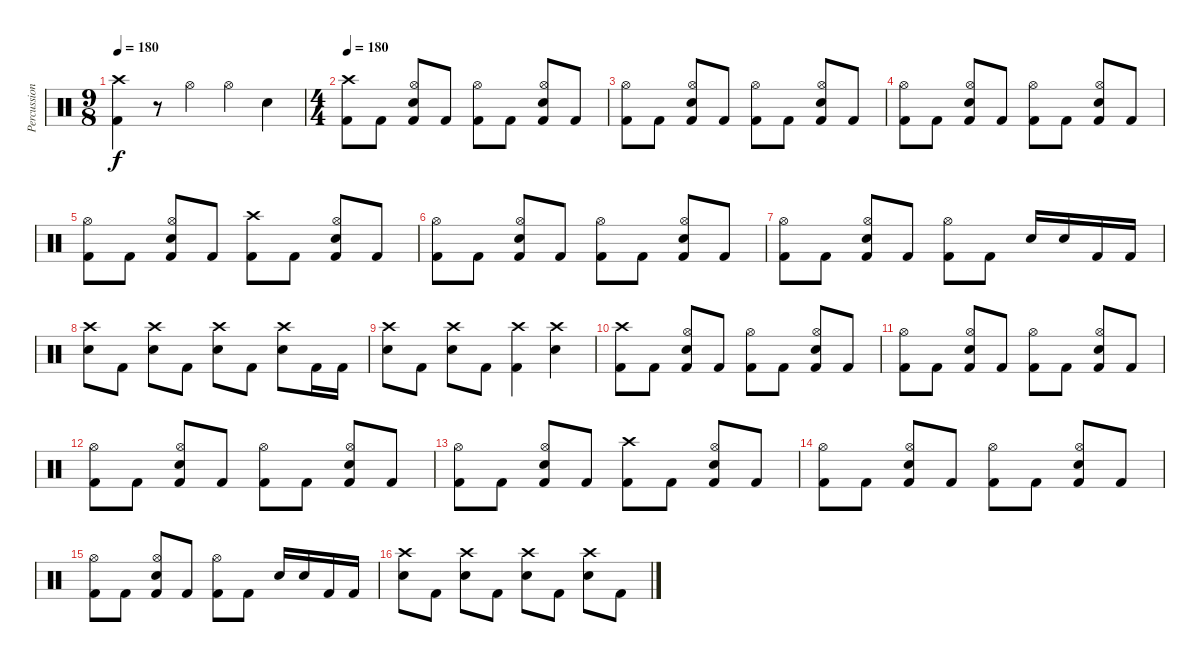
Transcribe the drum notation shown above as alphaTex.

\track ("Percussion" "Percussion") {instrument percussion}
\staff {score}
\articulation defaults
\ts (9 8)
\tempo 180
\clef neutral
\ks c
("Crash high (hit)" "Kick (hit) 2").4{dy f} r.8 "Hi-Hat (open)".4 "Hi-Hat (open)".4 "Snare (hit) 2".4 |
\ts (4 4)
\tempo 180
("Crash high (hit)" "Kick (hit) 2").8 "Kick (hit) 2".8 ("Hi-Hat (open)" "Snare (hit) 2" "Kick (hit) 2").8 "Kick (hit) 2".8 ("Hi-Hat (open)" "Kick (hit) 2").8 "Kick (hit) 2".8 ("Hi-Hat (open)" "Snare (hit) 2" "Kick (hit) 2").8 "Kick (hit) 2".8 |
("Hi-Hat (open)" "Kick (hit) 2").8 "Kick (hit) 2".8 ("Hi-Hat (open)" "Snare (hit) 2" "Kick (hit) 2").8 "Kick (hit) 2".8 ("Hi-Hat (open)" "Kick (hit) 2").8 "Kick (hit) 2".8 ("Hi-Hat (open)" "Snare (hit) 2" "Kick (hit) 2").8 "Kick (hit) 2".8 |
("Hi-Hat (open)" "Kick (hit) 2").8 "Kick (hit) 2".8 ("Hi-Hat (open)" "Snare (hit) 2" "Kick (hit) 2").8 "Kick (hit) 2".8 ("Hi-Hat (open)" "Kick (hit) 2").8 "Kick (hit) 2".8 ("Hi-Hat (open)" "Snare (hit) 2" "Kick (hit) 2").8 "Kick (hit) 2".8 |
("Hi-Hat (open)" "Kick (hit) 2").8 "Kick (hit) 2".8 ("Hi-Hat (open)" "Snare (hit) 2" "Kick (hit) 2").8 "Kick (hit) 2".8 ("Crash high (hit)" "Kick (hit) 2").8 "Kick (hit) 2".8 ("Hi-Hat (open)" "Snare (hit) 2" "Kick (hit) 2").8 "Kick (hit) 2".8 |
("Hi-Hat (open)" "Kick (hit) 2").8 "Kick (hit) 2".8 ("Hi-Hat (open)" "Snare (hit) 2" "Kick (hit) 2").8 "Kick (hit) 2".8 ("Hi-Hat (open)" "Kick (hit) 2").8 "Kick (hit) 2".8 ("Hi-Hat (open)" "Snare (hit) 2" "Kick (hit) 2").8 "Kick (hit) 2".8 |
("Hi-Hat (open)" "Kick (hit) 2").8 "Kick (hit) 2".8 ("Hi-Hat (open)" "Snare (hit) 2" "Kick (hit) 2").8 "Kick (hit) 2".8 ("Hi-Hat (open)" "Kick (hit) 2").8 "Kick (hit) 2".8 "Snare (hit) 2".16 "Snare (hit) 2".16 "Kick (hit) 2".16 "Kick (hit) 2".16 |
("Crash high (hit)" "Snare (hit) 2").8 "Kick (hit) 2".8 ("Crash high (hit)" "Snare (hit) 2").8 "Kick (hit) 2".8 ("Crash high (hit)" "Snare (hit) 2").8 "Kick (hit) 2".8 ("Crash high (hit)" "Snare (hit) 2").8 "Kick (hit) 2".16 "Kick (hit) 2".16 |
("Crash high (hit)" "Snare (hit) 2").8 "Kick (hit) 2".8 ("Crash high (hit)" "Snare (hit) 2").8 "Kick (hit) 2".8 ("Crash high (hit)" "Kick (hit) 2").4 ("Crash high (hit)" "Snare (hit) 2").4 |
("Crash high (hit)" "Kick (hit) 2").8 "Kick (hit) 2".8 ("Hi-Hat (open)" "Snare (hit) 2" "Kick (hit) 2").8 "Kick (hit) 2".8 ("Hi-Hat (open)" "Kick (hit) 2").8 "Kick (hit) 2".8 ("Hi-Hat (open)" "Snare (hit) 2" "Kick (hit) 2").8 "Kick (hit) 2".8 |
("Hi-Hat (open)" "Kick (hit) 2").8 "Kick (hit) 2".8 ("Hi-Hat (open)" "Snare (hit) 2" "Kick (hit) 2").8 "Kick (hit) 2".8 ("Hi-Hat (open)" "Kick (hit) 2").8 "Kick (hit) 2".8 ("Hi-Hat (open)" "Snare (hit) 2" "Kick (hit) 2").8 "Kick (hit) 2".8 |
("Hi-Hat (open)" "Kick (hit) 2").8 "Kick (hit) 2".8 ("Hi-Hat (open)" "Snare (hit) 2" "Kick (hit) 2").8 "Kick (hit) 2".8 ("Hi-Hat (open)" "Kick (hit) 2").8 "Kick (hit) 2".8 ("Hi-Hat (open)" "Snare (hit) 2" "Kick (hit) 2").8 "Kick (hit) 2".8 |
("Hi-Hat (open)" "Kick (hit) 2").8 "Kick (hit) 2".8 ("Hi-Hat (open)" "Snare (hit) 2" "Kick (hit) 2").8 "Kick (hit) 2".8 ("Crash high (hit)" "Kick (hit) 2").8 "Kick (hit) 2".8 ("Hi-Hat (open)" "Snare (hit) 2" "Kick (hit) 2").8 "Kick (hit) 2".8 |
("Hi-Hat (open)" "Kick (hit) 2").8 "Kick (hit) 2".8 ("Hi-Hat (open)" "Snare (hit) 2" "Kick (hit) 2").8 "Kick (hit) 2".8 ("Hi-Hat (open)" "Kick (hit) 2").8 "Kick (hit) 2".8 ("Hi-Hat (open)" "Snare (hit) 2" "Kick (hit) 2").8 "Kick (hit) 2".8 |
("Hi-Hat (open)" "Kick (hit) 2").8 "Kick (hit) 2".8 ("Hi-Hat (open)" "Snare (hit) 2" "Kick (hit) 2").8 "Kick (hit) 2".8 ("Hi-Hat (open)" "Kick (hit) 2").8 "Kick (hit) 2".8 "Snare (hit) 2".16 "Snare (hit) 2".16 "Kick (hit) 2".16 "Kick (hit) 2".16 |
("Crash high (hit)" "Snare (hit) 2").8 "Kick (hit) 2".8 ("Crash high (hit)" "Snare (hit) 2").8 "Kick (hit) 2".8 ("Crash high (hit)" "Snare (hit) 2").8 "Kick (hit) 2".8 ("Crash high (hit)" "Snare (hit) 2").8 "Kick (hit) 2".8
